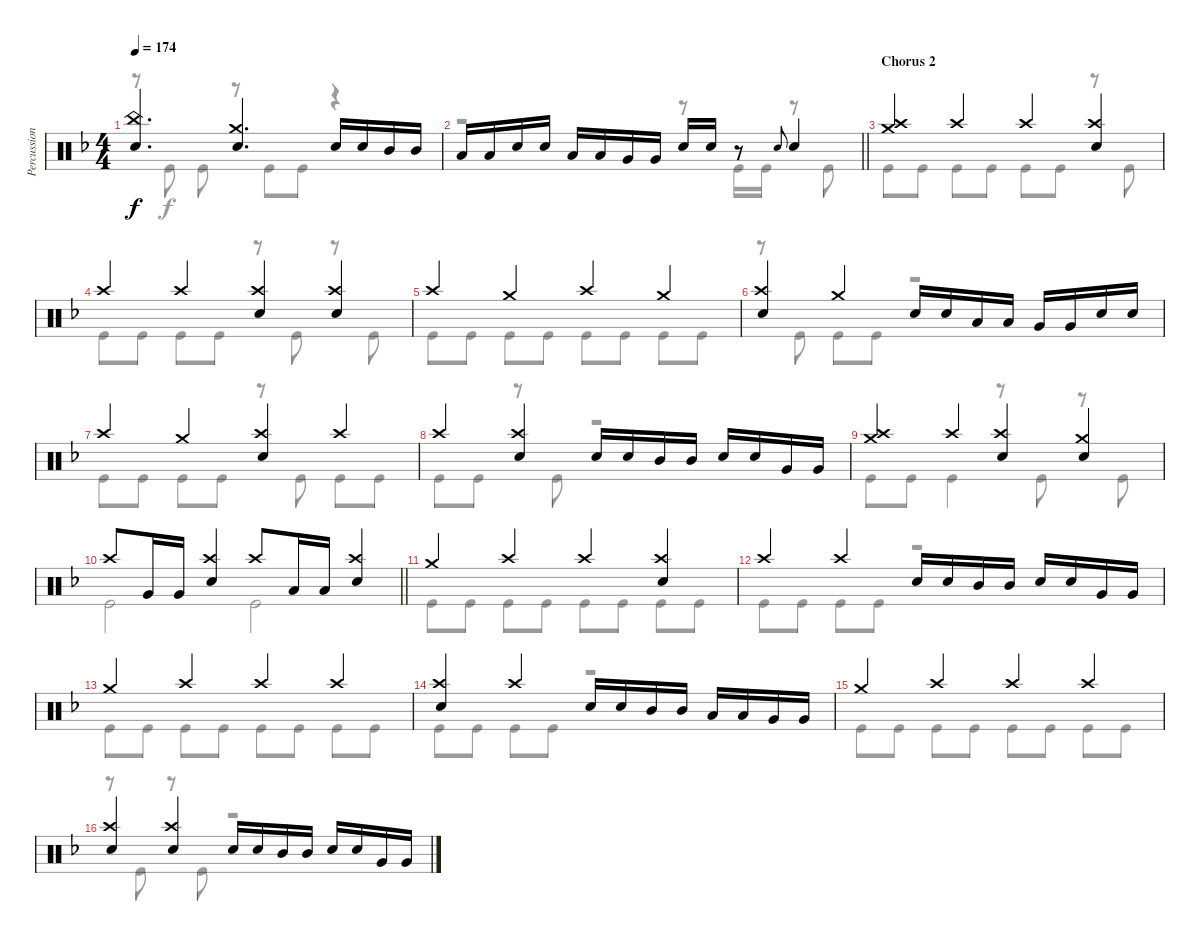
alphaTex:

\track ("Percussion" "Percussion") {instrument percussion}
\staff {score}
\articulation defaults
\voice
\ts (4 4)
\tempo 174
\clef neutral
\ks dminor
("China (hit)" "Electric Snare (hit)").4{d dy f} ("Crash medium (hit)" "Electric Snare (hit)").4{d} "Electric Snare (hit)".16 "Electric Snare (hit)".16 "Mid Tom (hit)".16 "Mid Tom (hit)".16 |
\barLineRight lightlight "Low Tom (hit)".16 "Low Tom (hit)".16 "Electric Snare (hit)".16 "Electric Snare (hit)".16 "Low Tom (hit)".16 "Low Tom (hit)".16 "Very Low Tom (hit)".16 "Very Low Tom (hit)".16 "Electric Snare (hit)".16 "Electric Snare (hit)".16
r.8 "Electric Snare (hit)".8{gr onbeat} "Electric Snare (hit)".4 |
\section ("" "Chorus 2")
("Crash medium (hit)" "Crash high (hit)").4 "Crash high (hit)".4 "Crash high (hit)".4 ("Crash high (hit)" "Electric Snare (hit)").4 |
"Crash high (hit)".4 "Crash high (hit)".4 ("Crash high (hit)" "Electric Snare (hit)").4 ("Crash high (hit)" "Electric Snare (hit)").4 |
"Crash high (hit)".4 "Crash medium (hit)".4 "Crash high (hit)".4 "Crash medium (hit)".4 |
("Crash high (hit)" "Electric Snare (hit)").4 "Crash medium (hit)".4 "Electric Snare (hit)".16 "Electric Snare (hit)".16 "Low Tom (hit)".16 "Low Tom (hit)".16 "Very Low Tom (hit)".16 "Very Low Tom (hit)".16 "Electric Snare (hit)".16 "Electric Snare (hit)".16 |
"Crash high (hit)".4 "Crash medium (hit)".4 ("Crash high (hit)" "Electric Snare (hit)").4 "Crash high (hit)".4 |
"Crash high (hit)".4 ("Crash high (hit)" "Electric Snare (hit)").4 "Electric Snare (hit)".16 "Electric Snare (hit)".16 "Mid Tom (hit)".16 "Mid Tom (hit)".16 "Electric Snare (hit)".16 "Electric Snare (hit)".16 "Very Low Tom (hit)".16 "Very Low Tom (hit)".16 |
("Crash medium (hit)" "Crash high (hit)").4 "Crash high (hit)".4 ("Crash high (hit)" "Electric Snare (hit)").4 ("Crash medium (hit)" "Electric Snare (hit)").4 |
\barLineRight lightlight "Crash high (hit)".8 "Very Low Tom (hit)".16 "Very Low Tom (hit)".16
("Crash high (hit)" "Electric Snare (hit)").4 "Crash high (hit)".8 "Low Tom (hit)".16 "Low Tom (hit)".16 ("Crash high (hit)" "Electric Snare (hit)").4 |
"Crash medium (hit)".4 "Crash high (hit)".4 "Crash high (hit)".4 ("Crash high (hit)" "Electric Snare (hit)").4 |
"Crash high (hit)".4 "Crash high (hit)".4 "Electric Snare (hit)".16 "Electric Snare (hit)".16 "Mid Tom (hit)".16 "Mid Tom (hit)".16 "Electric Snare (hit)".16 "Electric Snare (hit)".16 "Very Low Tom (hit)".16 "Very Low Tom (hit)".16 |
"Crash medium (hit)".4 "Crash high (hit)".4 "Crash high (hit)".4 "Crash high (hit)".4 |
("Crash high (hit)" "Electric Snare (hit)").4 "Crash high (hit)".4 "Electric Snare (hit)".16 "Electric Snare (hit)".16 "Mid Tom (hit)".16 "Mid Tom (hit)".16 "Low Tom (hit)".16 "Low Tom (hit)".16 "Very Low Tom (hit)".16 "Very Low Tom (hit)".16 |
"Crash medium (hit)".4 "Crash high (hit)".4 "Crash high (hit)".4 "Crash high (hit)".4 |
("Crash high (hit)" "Electric Snare (hit)").4 ("Crash high (hit)" "Electric Snare (hit)").4 "Electric Snare (hit)".16 "Electric Snare (hit)".16 "Mid Tom (hit)".16 "Mid Tom (hit)".16 "Electric Snare (hit)".16 "Electric Snare (hit)".16 "Very Low Tom (hit)".16 "Very Low Tom (hit)".16
\voice
\clef neutral
\ottava regular
\simile none
\ks dminor
r.8{dy f} "Kick (hit)".8 "Kick (hit)".8 r.8 "Kick (hit)".8 "Kick (hit)".8 r.4 |
\barLineRight lightlight
r.2 r.8 "Kick (hit)".16 "Kick (hit)".16 r.8 "Kick (hit)".8 |
"Kick (hit)".8 "Kick (hit)".8 "Kick (hit)".8 "Kick (hit)".8 "Kick (hit)".8 "Kick (hit)".8 r.8 "Kick (hit)".8 |
"Kick (hit)".8 "Kick (hit)".8 "Kick (hit)".8 "Kick (hit)".8 r.8 "Kick (hit)".8 r.8 "Kick (hit)".8 |
"Kick (hit)".8 "Kick (hit)".8 "Kick (hit)".8 "Kick (hit)".8 "Kick (hit)".8 "Kick (hit)".8 "Kick (hit)".8 "Kick (hit)".8 |
r.8 "Kick (hit)".8 "Kick (hit)".8 "Kick (hit)".8 r.2 |
"Kick (hit)".8 "Kick (hit)".8 "Kick (hit)".8 "Kick (hit)".8 r.8 "Kick (hit)".8 "Kick (hit)".8 "Kick (hit)".8 |
"Kick (hit)".8 "Kick (hit)".8 r.8 "Kick (hit)".8 r.2 |
"Kick (hit)".8 "Kick (hit)".8 "Kick (hit)".4 r.8 "Kick (hit)".8 r.8 "Kick (hit)".8 |
\barLineRight lightlight "Kick (hit)".2 "Kick (hit)".2
|
"Kick (hit)".8 "Kick (hit)".8 "Kick (hit)".8 "Kick (hit)".8 "Kick (hit)".8 "Kick (hit)".8 "Kick (hit)".8 "Kick (hit)".8 |
"Kick (hit)".8 "Kick (hit)".8 "Kick (hit)".8 "Kick (hit)".8 r.2 |
"Kick (hit)".8 "Kick (hit)".8 "Kick (hit)".8 "Kick (hit)".8 "Kick (hit)".8 "Kick (hit)".8 "Kick (hit)".8 "Kick (hit)".8 |
"Kick (hit)".8 "Kick (hit)".8 "Kick (hit)".8 "Kick (hit)".8 r.2 |
"Kick (hit)".8 "Kick (hit)".8 "Kick (hit)".8 "Kick (hit)".8 "Kick (hit)".8 "Kick (hit)".8 "Kick (hit)".8 "Kick (hit)".8 |
r.8 "Kick (hit)".8 r.8 "Kick (hit)".8 r.2
